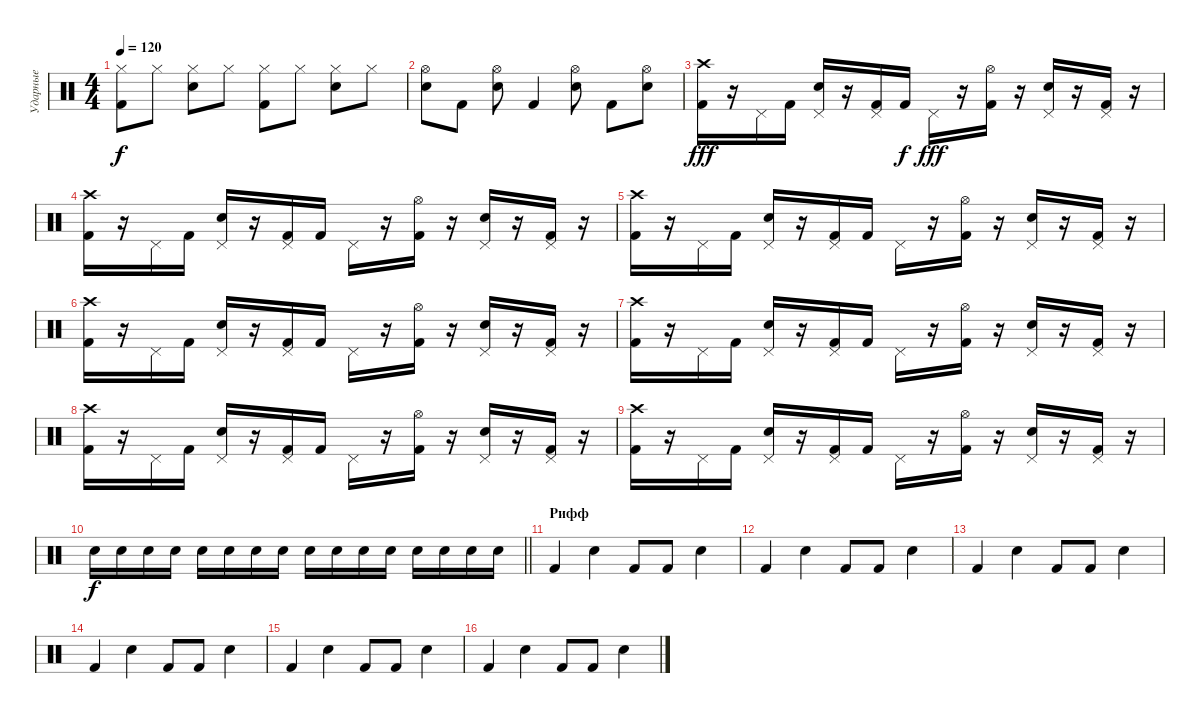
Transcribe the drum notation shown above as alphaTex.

\track ("Ударные" "Ударные") {instrument percussion}
\staff {score}
\articulation defaults
\ts (4 4)
\tempo 120
\clef neutral
\ks c
("Hi-Hat (closed)" "Kick (hit) 2").8{dy f} "Hi-Hat (closed)".8 ("Hi-Hat (closed)" "Electric Snare (hit)").8 "Hi-Hat (closed)".8 ("Hi-Hat (closed)" "Kick (hit) 2").8 "Hi-Hat (closed)".8 ("Hi-Hat (closed)" "Electric Snare (hit)").8 "Hi-Hat (closed)".8 |
("Electric Snare (hit)" "Hi-Hat (open)").8 "Kick (hit) 2".8 ("Electric Snare (hit)" "Hi-Hat (open)").8 "Kick (hit) 2".4 ("Electric Snare (hit)" "Hi-Hat (open)").8 "Kick (hit) 2".8 ("Electric Snare (hit)" "Hi-Hat (open)").8 |
("Crash high (hit)" "Kick (hit) 2").16{dy fff} r.16 "Pedal Hi-Hat (hit)".16 "Kick (hit) 2".16 ("Pedal Hi-Hat (hit)" "Snare (hit) 2").16 r.16 ("Pedal Hi-Hat (hit)" "Kick (hit) 2").16 "Kick (hit) 2".16{dy f} "Pedal Hi-Hat (hit)".16{dy fff} r.16 ("Hi-Hat (open)" "Kick (hit) 2").16 r.16 ("Pedal Hi-Hat (hit)" "Snare (hit) 2").16 r.16 ("Pedal Hi-Hat (hit)" "Kick (hit) 2").16 r.16 |
("Crash high (hit)" "Kick (hit) 2").16 r.16 "Pedal Hi-Hat (hit)".16 "Kick (hit) 2".16 ("Pedal Hi-Hat (hit)" "Snare (hit) 2").16 r.16 ("Pedal Hi-Hat (hit)" "Kick (hit) 2").16 "Kick (hit) 2".16 "Pedal Hi-Hat (hit)".16 r.16 ("Hi-Hat (open)" "Kick (hit) 2").16 r.16 ("Pedal Hi-Hat (hit)" "Snare (hit) 2").16 r.16 ("Pedal Hi-Hat (hit)" "Kick (hit) 2").16 r.16 |
("Crash high (hit)" "Kick (hit) 2").16 r.16 "Pedal Hi-Hat (hit)".16 "Kick (hit) 2".16 ("Pedal Hi-Hat (hit)" "Snare (hit) 2").16 r.16 ("Pedal Hi-Hat (hit)" "Kick (hit) 2").16 "Kick (hit) 2".16 "Pedal Hi-Hat (hit)".16 r.16 ("Hi-Hat (open)" "Kick (hit) 2").16 r.16 ("Pedal Hi-Hat (hit)" "Snare (hit) 2").16 r.16 ("Pedal Hi-Hat (hit)" "Kick (hit) 2").16 r.16 |
("Crash high (hit)" "Kick (hit) 2").16 r.16 "Pedal Hi-Hat (hit)".16 "Kick (hit) 2".16 ("Pedal Hi-Hat (hit)" "Snare (hit) 2").16 r.16 ("Pedal Hi-Hat (hit)" "Kick (hit) 2").16 "Kick (hit) 2".16 "Pedal Hi-Hat (hit)".16 r.16 ("Hi-Hat (open)" "Kick (hit) 2").16 r.16 ("Pedal Hi-Hat (hit)" "Snare (hit) 2").16 r.16 ("Pedal Hi-Hat (hit)" "Kick (hit) 2").16 r.16 |
("Crash high (hit)" "Kick (hit) 2").16 r.16 "Pedal Hi-Hat (hit)".16 "Kick (hit) 2".16 ("Pedal Hi-Hat (hit)" "Snare (hit) 2").16 r.16 ("Pedal Hi-Hat (hit)" "Kick (hit) 2").16 "Kick (hit) 2".16 "Pedal Hi-Hat (hit)".16 r.16 ("Hi-Hat (open)" "Kick (hit) 2").16 r.16 ("Pedal Hi-Hat (hit)" "Snare (hit) 2").16 r.16 ("Pedal Hi-Hat (hit)" "Kick (hit) 2").16 r.16 |
("Crash high (hit)" "Kick (hit) 2").16 r.16 "Pedal Hi-Hat (hit)".16 "Kick (hit) 2".16 ("Pedal Hi-Hat (hit)" "Snare (hit) 2").16 r.16 ("Pedal Hi-Hat (hit)" "Kick (hit) 2").16 "Kick (hit) 2".16 "Pedal Hi-Hat (hit)".16 r.16 ("Hi-Hat (open)" "Kick (hit) 2").16 r.16 ("Pedal Hi-Hat (hit)" "Snare (hit) 2").16 r.16 ("Pedal Hi-Hat (hit)" "Kick (hit) 2").16 r.16 |
("Crash high (hit)" "Kick (hit) 2").16 r.16 "Pedal Hi-Hat (hit)".16 "Kick (hit) 2".16 ("Pedal Hi-Hat (hit)" "Snare (hit) 2").16 r.16 ("Pedal Hi-Hat (hit)" "Kick (hit) 2").16 "Kick (hit) 2".16 "Pedal Hi-Hat (hit)".16 r.16 ("Hi-Hat (open)" "Kick (hit) 2").16 r.16 ("Pedal Hi-Hat (hit)" "Snare (hit) 2").16 r.16 ("Pedal Hi-Hat (hit)" "Kick (hit) 2").16 r.16 |
\barLineRight lightlight "Snare (hit) 2".16{dy f} "Snare (hit) 2".16 "Snare (hit) 2".16 "Snare (hit) 2".16 "Snare (hit) 2".16 "Snare (hit) 2".16 "Snare (hit) 2".16 "Snare (hit) 2".16 "Snare (hit) 2".16 "Snare (hit) 2".16 "Snare (hit) 2".16 "Snare (hit) 2".16 "Snare (hit) 2".16 "Snare (hit) 2".16 "Snare (hit) 2".16 "Snare (hit) 2".16
|
\section ("" "Рифф")
"Kick (hit) 2".4 "Snare (hit) 2".4 "Kick (hit) 2".8 "Kick (hit) 2".8 "Snare (hit) 2".4 |
"Kick (hit) 2".4 "Snare (hit) 2".4 "Kick (hit) 2".8 "Kick (hit) 2".8 "Snare (hit) 2".4 |
"Kick (hit) 2".4 "Snare (hit) 2".4 "Kick (hit) 2".8 "Kick (hit) 2".8 "Snare (hit) 2".4 |
"Kick (hit) 2".4 "Snare (hit) 2".4 "Kick (hit) 2".8 "Kick (hit) 2".8 "Snare (hit) 2".4 |
"Kick (hit) 2".4 "Snare (hit) 2".4 "Kick (hit) 2".8 "Kick (hit) 2".8 "Snare (hit) 2".4 |
"Kick (hit) 2".4 "Snare (hit) 2".4 "Kick (hit) 2".8 "Kick (hit) 2".8 "Snare (hit) 2".4
